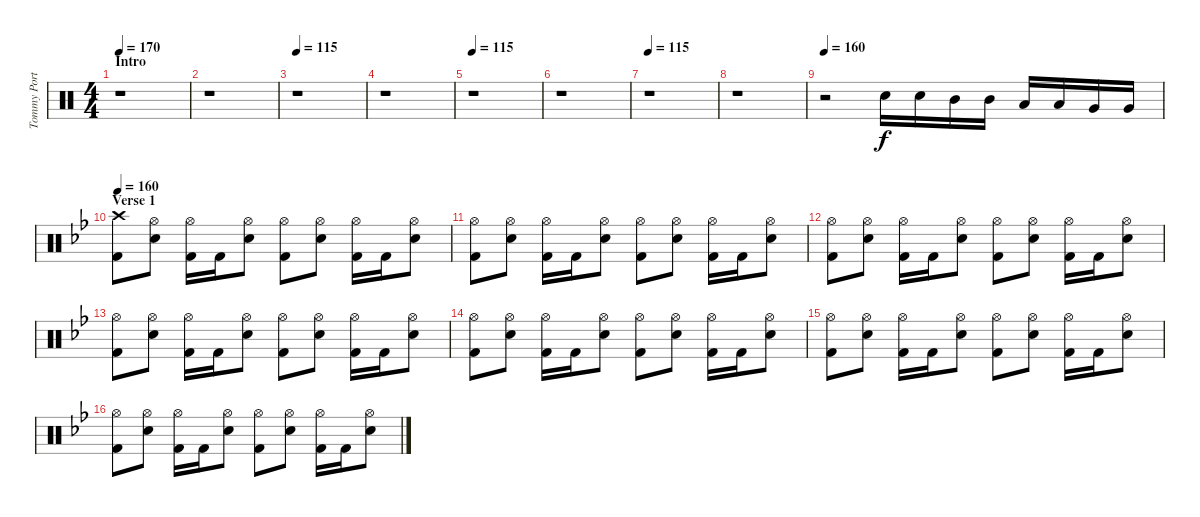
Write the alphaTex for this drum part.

\track ("Tommy Portimo" "Tommy Port") {instrument percussion}
\staff {score}
\articulation defaults
\ts (4 4)
\section ("" "Intro")
\tempo 170
\tempo 115
\tempo 170
\clef neutral
\ks c
r.1{dy f} |
r.1 |
\tempo 115
r.1 |
r.1 |
\tempo 115
r.1 |
r.1 |
\tempo 115
r.1 |
r.1 |
\tempo 160
r.2 "Snare (hit) 2".16 "Snare (hit) 2".16 "Mid Tom (hit)".16 "Mid Tom (hit)".16 "Low Tom (hit)".16 "Low Tom (hit)".16 "Very Low Tom (hit)".16 "Very Low Tom (hit)".16 |
\section ("" "Verse 1")
\tempo 160
\ks gminor
("Crash high (hit)" "Kick (hit) 2").8 ("Hi-Hat (open)" "Snare (hit) 2").8 ("Hi-Hat (open)" "Kick (hit) 2").16 "Kick (hit) 2".16 ("Hi-Hat (open)" "Snare (hit) 2").8 ("Hi-Hat (open)" "Kick (hit) 2").8 ("Hi-Hat (open)" "Snare (hit) 2").8 ("Hi-Hat (open)" "Kick (hit) 2").16 "Kick (hit) 2".16 ("Hi-Hat (open)" "Snare (hit) 2").8 |
("Hi-Hat (open)" "Kick (hit) 2").8 ("Hi-Hat (open)" "Snare (hit) 2").8 ("Hi-Hat (open)" "Kick (hit) 2").16 "Kick (hit) 2".16 ("Hi-Hat (open)" "Snare (hit) 2").8 ("Hi-Hat (open)" "Kick (hit) 2").8 ("Hi-Hat (open)" "Snare (hit) 2").8 ("Hi-Hat (open)" "Kick (hit) 2").16 "Kick (hit) 2".16 ("Hi-Hat (open)" "Snare (hit) 2").8 |
("Hi-Hat (open)" "Kick (hit) 2").8 ("Hi-Hat (open)" "Snare (hit) 2").8 ("Hi-Hat (open)" "Kick (hit) 2").16 "Kick (hit) 2".16 ("Hi-Hat (open)" "Snare (hit) 2").8 ("Hi-Hat (open)" "Kick (hit) 2").8 ("Hi-Hat (open)" "Snare (hit) 2").8 ("Hi-Hat (open)" "Kick (hit) 2").16 "Kick (hit) 2".16 ("Hi-Hat (open)" "Snare (hit) 2").8 |
("Hi-Hat (open)" "Kick (hit) 2").8 ("Hi-Hat (open)" "Snare (hit) 2").8 ("Hi-Hat (open)" "Kick (hit) 2").16 "Kick (hit) 2".16 ("Hi-Hat (open)" "Snare (hit) 2").8 ("Hi-Hat (open)" "Kick (hit) 2").8 ("Hi-Hat (open)" "Snare (hit) 2").8 ("Hi-Hat (open)" "Kick (hit) 2").16 "Kick (hit) 2".16 ("Hi-Hat (open)" "Snare (hit) 2").8 |
("Hi-Hat (open)" "Kick (hit) 2").8 ("Hi-Hat (open)" "Snare (hit) 2").8 ("Hi-Hat (open)" "Kick (hit) 2").16 "Kick (hit) 2".16 ("Hi-Hat (open)" "Snare (hit) 2").8 ("Hi-Hat (open)" "Kick (hit) 2").8 ("Hi-Hat (open)" "Snare (hit) 2").8 ("Hi-Hat (open)" "Kick (hit) 2").16 "Kick (hit) 2".16 ("Hi-Hat (open)" "Snare (hit) 2").8 |
("Hi-Hat (open)" "Kick (hit) 2").8 ("Hi-Hat (open)" "Snare (hit) 2").8 ("Hi-Hat (open)" "Kick (hit) 2").16 "Kick (hit) 2".16 ("Hi-Hat (open)" "Snare (hit) 2").8 ("Hi-Hat (open)" "Kick (hit) 2").8 ("Hi-Hat (open)" "Snare (hit) 2").8 ("Hi-Hat (open)" "Kick (hit) 2").16 "Kick (hit) 2".16 ("Hi-Hat (open)" "Snare (hit) 2").8 |
("Hi-Hat (open)" "Kick (hit) 2").8 ("Hi-Hat (open)" "Snare (hit) 2").8 ("Hi-Hat (open)" "Kick (hit) 2").16 "Kick (hit) 2".16 ("Hi-Hat (open)" "Snare (hit) 2").8 ("Hi-Hat (open)" "Kick (hit) 2").8 ("Hi-Hat (open)" "Snare (hit) 2").8 ("Hi-Hat (open)" "Kick (hit) 2").16 "Kick (hit) 2".16 ("Hi-Hat (open)" "Snare (hit) 2").8
